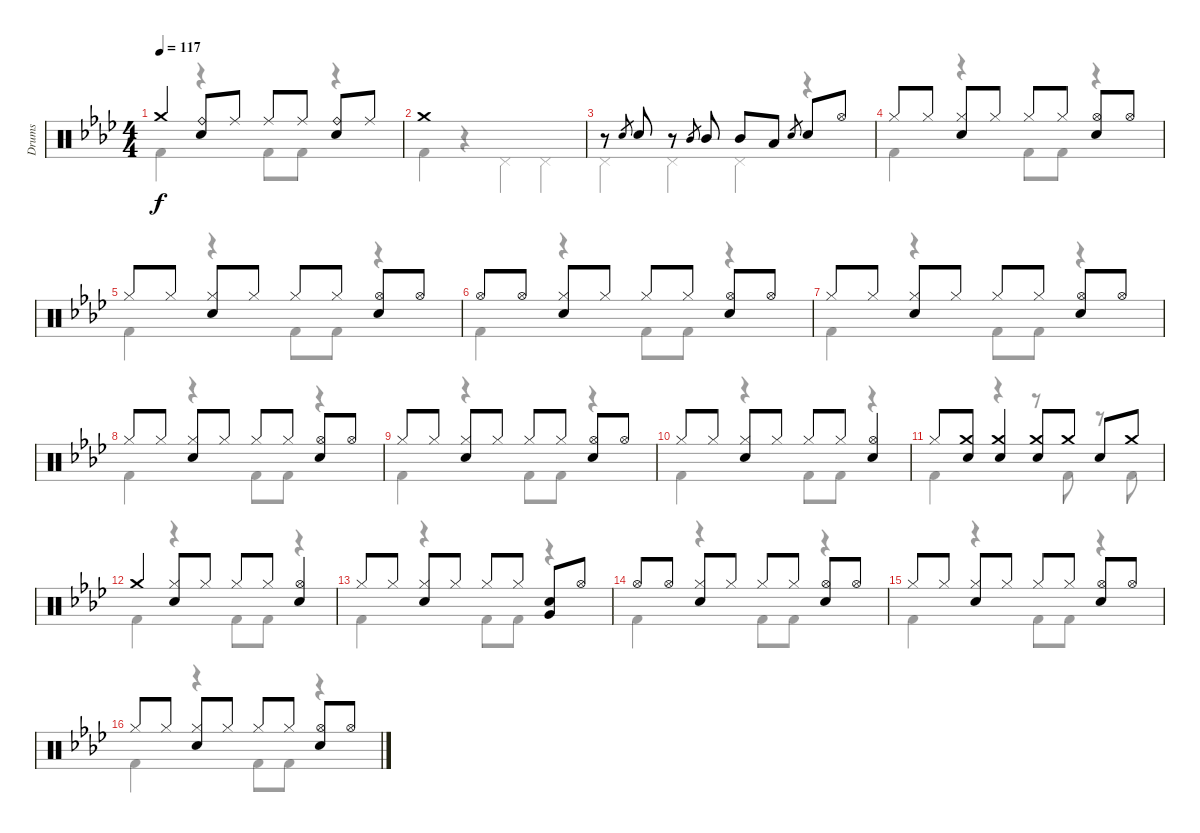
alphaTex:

\track ("Drums" "Drums") {instrument percussion}
\staff {score}
\articulation defaults
\voice
\ts (4 4)
\tempo 117
\clef neutral
\ks ab "Crash medium (hit)".4{dy f}
("Ride (bell)" "Snare (hit) 2").8 "Ride (middle)".8 "Ride (middle)".8 "Ride (middle)".8 ("Ride (bell)" "Snare (hit) 2").8 "Ride (middle)".8 |
"Crash medium (hit)".1 |
r.8 "Snare (hit) 2".8{gr} "Snare (hit) 2".8 r.8 "Mid Tom (hit)".8{gr} "Mid Tom (hit)".8 "Mid Tom (hit)".8 "Low Tom (hit)".8 "Snare (hit) 2".8{gr} "Snare (hit) 2".8 "Hi-Hat (open)".8 |
"Hi-Hat (closed)".8 "Hi-Hat (closed)".8 ("Hi-Hat (closed)" "Snare (hit) 2").8 "Hi-Hat (closed)".8 "Hi-Hat (closed)".8 "Hi-Hat (closed)".8 ("Hi-Hat (open)" "Snare (hit) 2").8 "Hi-Hat (open)".8 |
"Hi-Hat (closed)".8 "Hi-Hat (closed)".8 ("Hi-Hat (closed)" "Snare (hit) 2").8 "Hi-Hat (closed)".8 "Hi-Hat (closed)".8 "Hi-Hat (closed)".8 ("Hi-Hat (open)" "Snare (hit) 2").8 "Hi-Hat (open)".8 |
"Hi-Hat (open)".8 "Hi-Hat (open)".8 ("Hi-Hat (closed)" "Snare (hit) 2").8 "Hi-Hat (closed)".8 "Hi-Hat (closed)".8 "Hi-Hat (closed)".8 ("Hi-Hat (open)" "Snare (hit) 2").8 "Hi-Hat (open)".8 |
"Hi-Hat (closed)".8 "Hi-Hat (closed)".8 ("Hi-Hat (closed)" "Snare (hit) 2").8 "Hi-Hat (closed)".8 "Hi-Hat (closed)".8 "Hi-Hat (closed)".8 ("Hi-Hat (open)" "Snare (hit) 2").8 "Hi-Hat (open)".8 |
"Hi-Hat (closed)".8 "Hi-Hat (closed)".8 ("Hi-Hat (closed)" "Snare (hit) 2").8 "Hi-Hat (closed)".8 "Hi-Hat (closed)".8 "Hi-Hat (closed)".8 ("Hi-Hat (open)" "Snare (hit) 2").8 "Hi-Hat (open)".8 |
"Hi-Hat (closed)".8 "Hi-Hat (closed)".8 ("Hi-Hat (closed)" "Snare (hit) 2").8 "Hi-Hat (closed)".8 "Hi-Hat (closed)".8 "Hi-Hat (closed)".8 ("Hi-Hat (open)" "Snare (hit) 2").8 "Hi-Hat (open)".8 |
"Hi-Hat (closed)".8 "Hi-Hat (closed)".8 ("Hi-Hat (closed)" "Snare (hit) 2").8 "Hi-Hat (closed)".8 "Hi-Hat (closed)".8 "Hi-Hat (closed)".8 ("Hi-Hat (open)" "Snare (hit) 2").4 |
"Hi-Hat (closed)".8 ("Crash medium (hit)" "Snare (hit) 2").8 ("Crash medium (hit)" "Snare (hit) 2").4 ("Crash medium (hit)" "Snare (hit) 2").8 "Crash medium (hit)".8 "Snare (hit) 2".8 "Crash medium (hit)".8 |
"Crash medium (hit)".4 ("Hi-Hat (closed)" "Snare (hit) 2").8 "Hi-Hat (closed)".8 "Hi-Hat (closed)".8 "Hi-Hat (closed)".8 ("Hi-Hat (open)" "Snare (hit) 2").4 |
"Hi-Hat (closed)".8 "Hi-Hat (closed)".8 ("Hi-Hat (closed)" "Snare (hit) 2").8 "Hi-Hat (closed)".8 "Hi-Hat (closed)".8 "Hi-Hat (closed)".8 ("Snare (hit) 2" "Very Low Tom (hit)").8 "Hi-Hat (open)".8 |
"Hi-Hat (open)".8 "Hi-Hat (open)".8 ("Hi-Hat (closed)" "Snare (hit) 2").8 "Hi-Hat (closed)".8 "Hi-Hat (closed)".8 "Hi-Hat (closed)".8 ("Hi-Hat (open)" "Snare (hit) 2").8 "Hi-Hat (open)".8 |
"Hi-Hat (closed)".8 "Hi-Hat (closed)".8 ("Hi-Hat (closed)" "Snare (hit) 2").8 "Hi-Hat (closed)".8 "Hi-Hat (closed)".8 "Hi-Hat (closed)".8 ("Hi-Hat (open)" "Snare (hit) 2").8 "Hi-Hat (open)".8 |
"Hi-Hat (closed)".8 "Hi-Hat (closed)".8 ("Hi-Hat (closed)" "Snare (hit) 2").8 "Hi-Hat (closed)".8 "Hi-Hat (closed)".8 "Hi-Hat (closed)".8 ("Hi-Hat (open)" "Snare (hit) 2").8 "Hi-Hat (open)".8
\voice
\clef neutral
\ottava regular
\simile none
\ks ab "Kick (hit) 2".4{dy f}
r.4 "Kick (hit) 2".8 "Kick (hit) 2".8 r.4 |
"Kick (hit) 2".4 r.4 "Pedal Hi-Hat (hit)".4 "Pedal Hi-Hat (hit)".4 |
"Pedal Hi-Hat (hit)".4 "Pedal Hi-Hat (hit)".4 "Pedal Hi-Hat (hit)".4 r.4 |
"Kick (hit) 2".4 r.4 "Kick (hit) 2".8 "Kick (hit) 2".8 r.4 |
"Kick (hit) 2".4 r.4 "Kick (hit) 2".8 "Kick (hit) 2".8 r.4 |
"Kick (hit) 2".4 r.4 "Kick (hit) 2".8 "Kick (hit) 2".8 r.4 |
"Kick (hit) 2".4 r.4 "Kick (hit) 2".8 "Kick (hit) 2".8 r.4 |
"Kick (hit) 2".4 r.4 "Kick (hit) 2".8 "Kick (hit) 2".8 r.4 |
"Kick (hit) 2".4 r.4 "Kick (hit) 2".8 "Kick (hit) 2".8 r.4 |
"Kick (hit) 2".4 r.4 "Kick (hit) 2".8 "Kick (hit) 2".8 r.4 |
"Kick (hit) 2".4 r.4 r.8 "Kick (hit) 2".8 r.8 "Kick (hit) 2".8 |
"Kick (hit) 2".4 r.4 "Kick (hit) 2".8 "Kick (hit) 2".8 r.4 |
"Kick (hit) 2".4 r.4 "Kick (hit) 2".8 "Kick (hit) 2".8 r.4 |
"Kick (hit) 2".4 r.4 "Kick (hit) 2".8 "Kick (hit) 2".8 r.4 |
"Kick (hit) 2".4 r.4 "Kick (hit) 2".8 "Kick (hit) 2".8 r.4 |
"Kick (hit) 2".4 r.4 "Kick (hit) 2".8 "Kick (hit) 2".8 r.4
